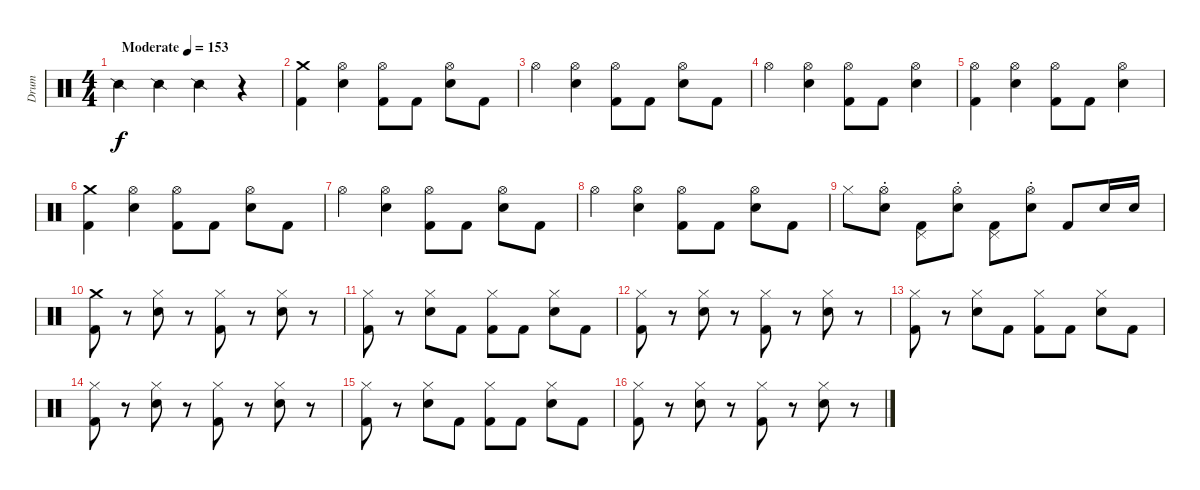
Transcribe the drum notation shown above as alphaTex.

\track ("Drum" "Drum") {instrument percussion}
\staff {score}
\articulation defaults
\ts (4 4)
\tempo (153 "Moderate")
\clef neutral
\ks c "Snare (side stick) 2".4{dy f} "Snare (side stick) 2".4 "Snare (side stick) 2".4
r.4 |
("Crash medium (hit)" "Kick (hit) 2").4 ("Hi-Hat (open)" "Snare (hit) 2").4 ("Hi-Hat (open)" "Kick (hit) 2").8 "Kick (hit) 2".8 ("Hi-Hat (open)" "Snare (hit) 2").8 "Kick (hit) 2".8 |
"Hi-Hat (open)".4 ("Hi-Hat (open)" "Snare (hit) 2").4 ("Hi-Hat (open)" "Kick (hit) 2").8 "Kick (hit) 2".8 ("Hi-Hat (open)" "Snare (hit) 2").8 "Kick (hit) 2".8 |
"Hi-Hat (open)".4 ("Hi-Hat (open)" "Snare (hit) 2").4 ("Hi-Hat (open)" "Kick (hit) 2").8 "Kick (hit) 2".8 ("Hi-Hat (open)" "Snare (hit) 2").4 |
("Hi-Hat (open)" "Kick (hit) 2").4 ("Hi-Hat (open)" "Snare (hit) 2").4 ("Hi-Hat (open)" "Kick (hit) 2").8 "Kick (hit) 2".8 ("Hi-Hat (open)" "Snare (hit) 2").4 |
("Crash medium (hit)" "Kick (hit) 2").4 ("Hi-Hat (open)" "Snare (hit) 2").4 ("Hi-Hat (open)" "Kick (hit) 2").8 "Kick (hit) 2".8 ("Hi-Hat (open)" "Snare (hit) 2").8 "Kick (hit) 2".8 |
"Hi-Hat (open)".4 ("Hi-Hat (open)" "Snare (hit) 2").4 ("Hi-Hat (open)" "Kick (hit) 2").8 "Kick (hit) 2".8 ("Hi-Hat (open)" "Snare (hit) 2").8 "Kick (hit) 2".8 |
"Hi-Hat (open)".4 ("Hi-Hat (open)" "Snare (hit) 2").4 ("Hi-Hat (open)" "Kick (hit) 2").8 "Kick (hit) 2".8 ("Hi-Hat (open)" "Snare (hit) 2").8 "Kick (hit) 2".8 |
"Hi-Hat (closed)".8 ("Hi-Hat (open)"{st} "Snare (hit) 2").8 ("Pedal Hi-Hat (hit)" "Kick (hit) 2").8 ("Hi-Hat (open)"{st} "Snare (hit) 2").8 ("Pedal Hi-Hat (hit)" "Kick (hit) 2").8 ("Hi-Hat (open)"{st} "Snare (hit) 2").8 "Kick (hit) 2".8 "Snare (hit) 2".16 "Snare (hit) 2".16 |
("Crash medium (hit)" "Kick (hit) 2").8 r.8 ("Hi-Hat (closed)" "Snare (hit) 2").8 r.8 ("Hi-Hat (closed)" "Kick (hit) 2").8 r.8 ("Hi-Hat (closed)" "Snare (hit) 2").8 r.8 |
("Hi-Hat (closed)" "Kick (hit) 2").8 r.8 ("Hi-Hat (closed)" "Snare (hit) 2").8 "Kick (hit) 2".8 ("Hi-Hat (closed)" "Kick (hit) 2").8 "Kick (hit) 2".8 ("Hi-Hat (closed)" "Snare (hit) 2").8 "Kick (hit) 2".8 |
("Hi-Hat (closed)" "Kick (hit) 2").8 r.8 ("Hi-Hat (closed)" "Snare (hit) 2").8 r.8 ("Hi-Hat (closed)" "Kick (hit) 2").8 r.8 ("Hi-Hat (closed)" "Snare (hit) 2").8 r.8 |
("Hi-Hat (closed)" "Kick (hit) 2").8 r.8 ("Hi-Hat (closed)" "Snare (hit) 2").8 "Kick (hit) 2".8 ("Hi-Hat (closed)" "Kick (hit) 2").8 "Kick (hit) 2".8 ("Hi-Hat (closed)" "Snare (hit) 2").8 "Kick (hit) 2".8 |
("Hi-Hat (closed)" "Kick (hit) 2").8 r.8 ("Hi-Hat (closed)" "Snare (hit) 2").8 r.8 ("Hi-Hat (closed)" "Kick (hit) 2").8 r.8 ("Hi-Hat (closed)" "Snare (hit) 2").8 r.8 |
("Hi-Hat (closed)" "Kick (hit) 2").8 r.8 ("Hi-Hat (closed)" "Snare (hit) 2").8 "Kick (hit) 2".8 ("Hi-Hat (closed)" "Kick (hit) 2").8 "Kick (hit) 2".8 ("Hi-Hat (closed)" "Snare (hit) 2").8 "Kick (hit) 2".8 |
("Hi-Hat (closed)" "Kick (hit) 2").8 r.8 ("Hi-Hat (closed)" "Snare (hit) 2").8 r.8 ("Hi-Hat (closed)" "Kick (hit) 2").8 r.8 ("Hi-Hat (closed)" "Snare (hit) 2").8 r.8
